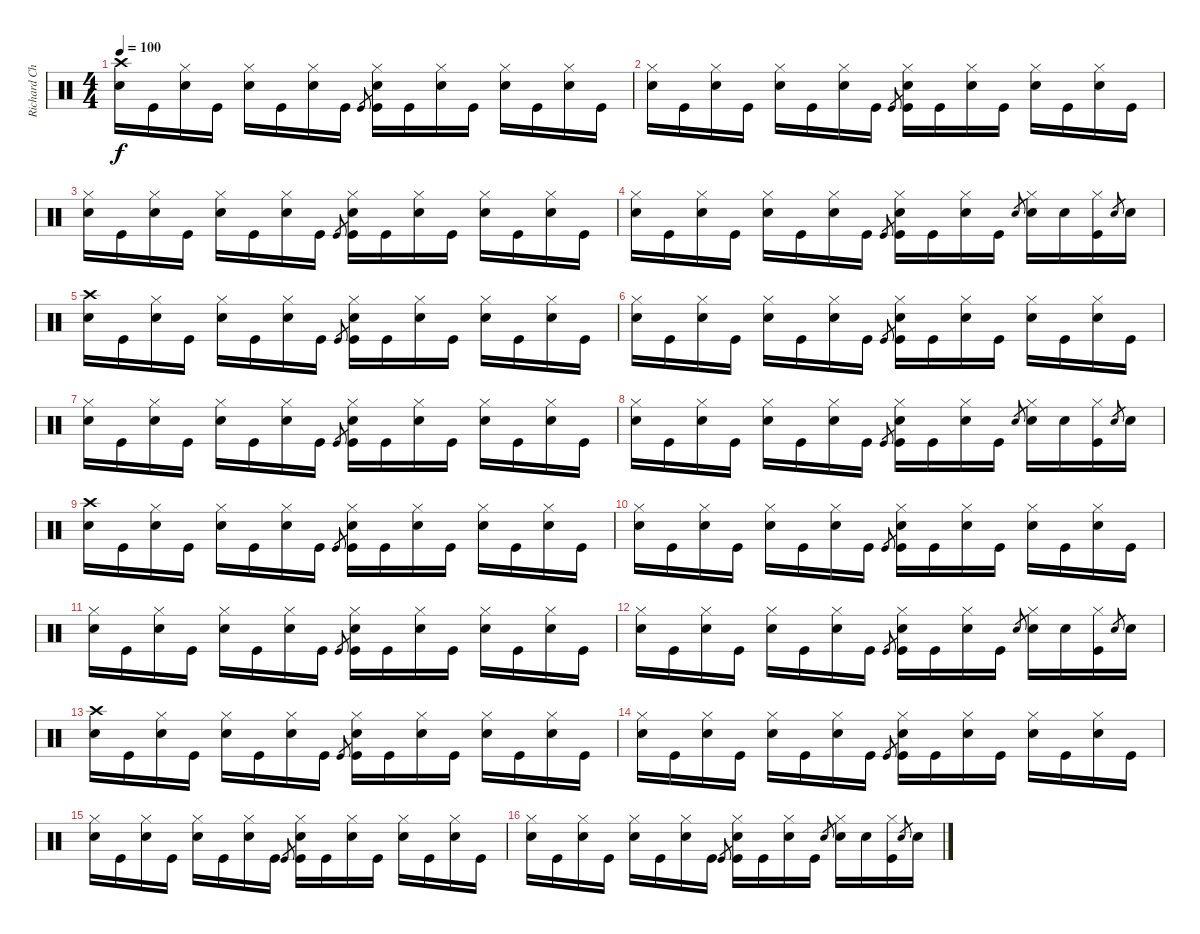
\track ("Richard Chadwick - Drums" "Richard Ch") {instrument percussion}
\staff {score}
\articulation defaults
\ts (4 4)
\tempo 100
\clef neutral
\ks c
("Crash high (hit)" "Snare (hit) 2").16{dy f} "Kick (hit)".16 ("Hi-Hat (closed)" "Snare (hit) 2").16 "Kick (hit)".16 ("Hi-Hat (closed)" "Snare (hit) 2").16 "Kick (hit)".16 ("Hi-Hat (closed)" "Snare (hit) 2").16 "Kick (hit)".16 "Kick (hit)".8{gr} ("Hi-Hat (closed)" "Snare (hit) 2" "Kick (hit)").16 "Kick (hit)".16 ("Hi-Hat (closed)" "Snare (hit) 2").16 "Kick (hit)".16 ("Hi-Hat (closed)" "Snare (hit) 2").16 "Kick (hit)".16 ("Hi-Hat (closed)" "Snare (hit) 2").16 "Kick (hit)".16 |
("Hi-Hat (closed)" "Snare (hit) 2").16 "Kick (hit)".16 ("Hi-Hat (closed)" "Snare (hit) 2").16 "Kick (hit)".16 ("Hi-Hat (closed)" "Snare (hit) 2").16 "Kick (hit)".16 ("Hi-Hat (closed)" "Snare (hit) 2").16 "Kick (hit)".16 "Kick (hit)".8{gr} ("Hi-Hat (closed)" "Snare (hit) 2" "Kick (hit)").16 "Kick (hit)".16 ("Hi-Hat (closed)" "Snare (hit) 2").16 "Kick (hit)".16 ("Hi-Hat (closed)" "Snare (hit) 2").16 "Kick (hit)".16 ("Hi-Hat (closed)" "Snare (hit) 2").16 "Kick (hit)".16 |
("Hi-Hat (closed)" "Snare (hit) 2").16 "Kick (hit)".16 ("Hi-Hat (closed)" "Snare (hit) 2").16 "Kick (hit)".16 ("Hi-Hat (closed)" "Snare (hit) 2").16 "Kick (hit)".16 ("Hi-Hat (closed)" "Snare (hit) 2").16 "Kick (hit)".16 "Kick (hit)".8{gr} ("Hi-Hat (closed)" "Snare (hit) 2" "Kick (hit)").16 "Kick (hit)".16 ("Hi-Hat (closed)" "Snare (hit) 2").16 "Kick (hit)".16 ("Hi-Hat (closed)" "Snare (hit) 2").16 "Kick (hit)".16 ("Hi-Hat (closed)" "Snare (hit) 2").16 "Kick (hit)".16 |
("Hi-Hat (closed)" "Snare (hit) 2").16 "Kick (hit)".16 ("Hi-Hat (closed)" "Snare (hit) 2").16 "Kick (hit)".16 ("Hi-Hat (closed)" "Snare (hit) 2").16 "Kick (hit)".16 ("Hi-Hat (closed)" "Snare (hit) 2").16 "Kick (hit)".16 "Kick (hit)".8{gr} ("Hi-Hat (closed)" "Snare (hit) 2" "Kick (hit)").16 "Kick (hit)".16 ("Hi-Hat (closed)" "Snare (hit) 2").16 "Kick (hit)".16 "Snare (hit) 2".8{gr} ("Hi-Hat (closed)" "Snare (hit) 2").16 "Snare (hit) 2".16 ("Hi-Hat (closed)" "Kick (hit)").16 "Snare (hit) 2".8{gr} "Snare (hit) 2".16 |
("Crash high (hit)" "Snare (hit) 2").16 "Kick (hit)".16 ("Hi-Hat (closed)" "Snare (hit) 2").16 "Kick (hit)".16 ("Hi-Hat (closed)" "Snare (hit) 2").16 "Kick (hit)".16 ("Hi-Hat (closed)" "Snare (hit) 2").16 "Kick (hit)".16 "Kick (hit)".8{gr} ("Hi-Hat (closed)" "Snare (hit) 2" "Kick (hit)").16 "Kick (hit)".16 ("Hi-Hat (closed)" "Snare (hit) 2").16 "Kick (hit)".16 ("Hi-Hat (closed)" "Snare (hit) 2").16 "Kick (hit)".16 ("Hi-Hat (closed)" "Snare (hit) 2").16 "Kick (hit)".16 |
("Hi-Hat (closed)" "Snare (hit) 2").16 "Kick (hit)".16 ("Hi-Hat (closed)" "Snare (hit) 2").16 "Kick (hit)".16 ("Hi-Hat (closed)" "Snare (hit) 2").16 "Kick (hit)".16 ("Hi-Hat (closed)" "Snare (hit) 2").16 "Kick (hit)".16 "Kick (hit)".8{gr} ("Hi-Hat (closed)" "Snare (hit) 2" "Kick (hit)").16 "Kick (hit)".16 ("Hi-Hat (closed)" "Snare (hit) 2").16 "Kick (hit)".16 ("Hi-Hat (closed)" "Snare (hit) 2").16 "Kick (hit)".16 ("Hi-Hat (closed)" "Snare (hit) 2").16 "Kick (hit)".16 |
("Hi-Hat (closed)" "Snare (hit) 2").16 "Kick (hit)".16 ("Hi-Hat (closed)" "Snare (hit) 2").16 "Kick (hit)".16 ("Hi-Hat (closed)" "Snare (hit) 2").16 "Kick (hit)".16 ("Hi-Hat (closed)" "Snare (hit) 2").16 "Kick (hit)".16 "Kick (hit)".8{gr} ("Hi-Hat (closed)" "Snare (hit) 2" "Kick (hit)").16 "Kick (hit)".16 ("Hi-Hat (closed)" "Snare (hit) 2").16 "Kick (hit)".16 ("Hi-Hat (closed)" "Snare (hit) 2").16 "Kick (hit)".16 ("Hi-Hat (closed)" "Snare (hit) 2").16 "Kick (hit)".16 |
("Hi-Hat (closed)" "Snare (hit) 2").16 "Kick (hit)".16 ("Hi-Hat (closed)" "Snare (hit) 2").16 "Kick (hit)".16 ("Hi-Hat (closed)" "Snare (hit) 2").16 "Kick (hit)".16 ("Hi-Hat (closed)" "Snare (hit) 2").16 "Kick (hit)".16 "Kick (hit)".8{gr} ("Hi-Hat (closed)" "Snare (hit) 2" "Kick (hit)").16 "Kick (hit)".16 ("Hi-Hat (closed)" "Snare (hit) 2").16 "Kick (hit)".16 "Snare (hit) 2".8{gr} ("Hi-Hat (closed)" "Snare (hit) 2").16 "Snare (hit) 2".16 ("Hi-Hat (closed)" "Kick (hit)").16 "Snare (hit) 2".8{gr} "Snare (hit) 2".16 |
("Crash high (hit)" "Snare (hit) 2").16 "Kick (hit)".16 ("Hi-Hat (closed)" "Snare (hit) 2").16 "Kick (hit)".16 ("Hi-Hat (closed)" "Snare (hit) 2").16 "Kick (hit)".16 ("Hi-Hat (closed)" "Snare (hit) 2").16 "Kick (hit)".16 "Kick (hit)".8{gr} ("Hi-Hat (closed)" "Snare (hit) 2" "Kick (hit)").16 "Kick (hit)".16 ("Hi-Hat (closed)" "Snare (hit) 2").16 "Kick (hit)".16 ("Hi-Hat (closed)" "Snare (hit) 2").16 "Kick (hit)".16 ("Hi-Hat (closed)" "Snare (hit) 2").16 "Kick (hit)".16 |
("Hi-Hat (closed)" "Snare (hit) 2").16 "Kick (hit)".16 ("Hi-Hat (closed)" "Snare (hit) 2").16 "Kick (hit)".16 ("Hi-Hat (closed)" "Snare (hit) 2").16 "Kick (hit)".16 ("Hi-Hat (closed)" "Snare (hit) 2").16 "Kick (hit)".16 "Kick (hit)".8{gr} ("Hi-Hat (closed)" "Snare (hit) 2" "Kick (hit)").16 "Kick (hit)".16 ("Hi-Hat (closed)" "Snare (hit) 2").16 "Kick (hit)".16 ("Hi-Hat (closed)" "Snare (hit) 2").16 "Kick (hit)".16 ("Hi-Hat (closed)" "Snare (hit) 2").16 "Kick (hit)".16 |
("Hi-Hat (closed)" "Snare (hit) 2").16 "Kick (hit)".16 ("Hi-Hat (closed)" "Snare (hit) 2").16 "Kick (hit)".16 ("Hi-Hat (closed)" "Snare (hit) 2").16 "Kick (hit)".16 ("Hi-Hat (closed)" "Snare (hit) 2").16 "Kick (hit)".16 "Kick (hit)".8{gr} ("Hi-Hat (closed)" "Snare (hit) 2" "Kick (hit)").16 "Kick (hit)".16 ("Hi-Hat (closed)" "Snare (hit) 2").16 "Kick (hit)".16 ("Hi-Hat (closed)" "Snare (hit) 2").16 "Kick (hit)".16 ("Hi-Hat (closed)" "Snare (hit) 2").16 "Kick (hit)".16 |
("Hi-Hat (closed)" "Snare (hit) 2").16 "Kick (hit)".16 ("Hi-Hat (closed)" "Snare (hit) 2").16 "Kick (hit)".16 ("Hi-Hat (closed)" "Snare (hit) 2").16 "Kick (hit)".16 ("Hi-Hat (closed)" "Snare (hit) 2").16 "Kick (hit)".16 "Kick (hit)".8{gr} ("Hi-Hat (closed)" "Snare (hit) 2" "Kick (hit)").16 "Kick (hit)".16 ("Hi-Hat (closed)" "Snare (hit) 2").16 "Kick (hit)".16 "Snare (hit) 2".8{gr} ("Hi-Hat (closed)" "Snare (hit) 2").16 "Snare (hit) 2".16 ("Hi-Hat (closed)" "Kick (hit)").16 "Snare (hit) 2".8{gr} "Snare (hit) 2".16 |
("Crash high (hit)" "Snare (hit) 2").16 "Kick (hit)".16 ("Hi-Hat (closed)" "Snare (hit) 2").16 "Kick (hit)".16 ("Hi-Hat (closed)" "Snare (hit) 2").16 "Kick (hit)".16 ("Hi-Hat (closed)" "Snare (hit) 2").16 "Kick (hit)".16 "Kick (hit)".8{gr} ("Hi-Hat (closed)" "Snare (hit) 2" "Kick (hit)").16 "Kick (hit)".16 ("Hi-Hat (closed)" "Snare (hit) 2").16 "Kick (hit)".16 ("Hi-Hat (closed)" "Snare (hit) 2").16 "Kick (hit)".16 ("Hi-Hat (closed)" "Snare (hit) 2").16 "Kick (hit)".16 |
("Hi-Hat (closed)" "Snare (hit) 2").16 "Kick (hit)".16 ("Hi-Hat (closed)" "Snare (hit) 2").16 "Kick (hit)".16 ("Hi-Hat (closed)" "Snare (hit) 2").16 "Kick (hit)".16 ("Hi-Hat (closed)" "Snare (hit) 2").16 "Kick (hit)".16 "Kick (hit)".8{gr} ("Hi-Hat (closed)" "Snare (hit) 2" "Kick (hit)").16 "Kick (hit)".16 ("Hi-Hat (closed)" "Snare (hit) 2").16 "Kick (hit)".16 ("Hi-Hat (closed)" "Snare (hit) 2").16 "Kick (hit)".16 ("Hi-Hat (closed)" "Snare (hit) 2").16 "Kick (hit)".16 |
("Hi-Hat (closed)" "Snare (hit) 2").16 "Kick (hit)".16 ("Hi-Hat (closed)" "Snare (hit) 2").16 "Kick (hit)".16 ("Hi-Hat (closed)" "Snare (hit) 2").16 "Kick (hit)".16 ("Hi-Hat (closed)" "Snare (hit) 2").16 "Kick (hit)".16 "Kick (hit)".8{gr} ("Hi-Hat (closed)" "Snare (hit) 2" "Kick (hit)").16 "Kick (hit)".16 ("Hi-Hat (closed)" "Snare (hit) 2").16 "Kick (hit)".16 ("Hi-Hat (closed)" "Snare (hit) 2").16 "Kick (hit)".16 ("Hi-Hat (closed)" "Snare (hit) 2").16 "Kick (hit)".16 |
("Hi-Hat (closed)" "Snare (hit) 2").16 "Kick (hit)".16 ("Hi-Hat (closed)" "Snare (hit) 2").16 "Kick (hit)".16 ("Hi-Hat (closed)" "Snare (hit) 2").16 "Kick (hit)".16 ("Hi-Hat (closed)" "Snare (hit) 2").16 "Kick (hit)".16 "Kick (hit)".8{gr} ("Hi-Hat (closed)" "Snare (hit) 2" "Kick (hit)").16 "Kick (hit)".16 ("Hi-Hat (closed)" "Snare (hit) 2").16 "Kick (hit)".16 "Snare (hit) 2".8{gr} ("Hi-Hat (closed)" "Snare (hit) 2").16 "Snare (hit) 2".16 ("Hi-Hat (closed)" "Kick (hit)").16 "Snare (hit) 2".8{gr} "Snare (hit) 2".16
